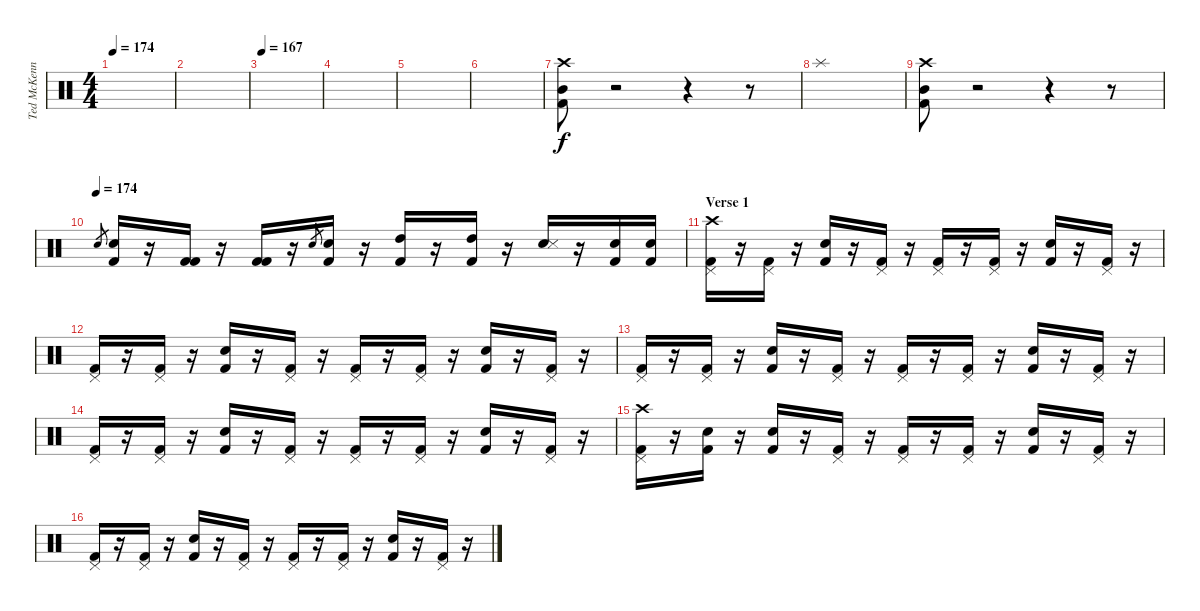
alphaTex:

\track ("Ted McKenna" "Ted McKenn") {instrument percussion}
\staff {score}
\articulation defaults
\ts (4 4)
\tempo 174
\clef neutral
\ks c
|
|
\tempo 167
|
|
|
|
("Crash high (hit)" "Mid Tom (hit)" "Kick (hit) 2").8 r.2 r.4 r.8 |
"Splash (hit)".1 |
("Crash high (hit)" "Mid Tom (hit)" "Kick (hit) 2").8 r.2 r.4 r.8 |
\tempo (174)
"Electric Snare (hit)"{sl}.8{gr} ("Electric Snare (hit)" "Kick (hit) 2").16 r.16 ("Kick (hit) 2" "Kick (hit) 2").16 r.16 ("Kick (hit) 2" "Kick (hit) 2").16 r.16 "Electric Snare (hit)".8{gr} ("Electric Snare (hit)" "Kick (hit) 2").16 r.16 ("High Tom (hit)" "Kick (hit) 2").16 r.16 ("High Tom (hit)" "Kick (hit) 2").16 r.16 ("Snare (hit) 2" "Snare (side stick) 3").16 r.16 ("Snare (hit) 2" "Kick (hit) 2").16 ("Snare (hit) 2" "Kick (hit) 2").16 |
\section ("" "Verse 1")
("Crash high (hit)" "Pedal Hi-Hat (hit)" "Kick (hit) 2").16 r.16 ("Pedal Hi-Hat (hit)" "Kick (hit) 2").16 r.16 ("Snare (hit) 2" "Kick (hit) 2").16 r.16 ("Pedal Hi-Hat (hit)" "Kick (hit) 2").16 r.16 ("Pedal Hi-Hat (hit)" "Kick (hit) 2").16 r.16 ("Pedal Hi-Hat (hit)" "Kick (hit) 2").16 r.16 ("Snare (hit) 2" "Kick (hit) 2").16 r.16 ("Pedal Hi-Hat (hit)" "Kick (hit) 2").16 r.16 |
("Pedal Hi-Hat (hit)" "Kick (hit) 2").16 r.16 ("Pedal Hi-Hat (hit)" "Kick (hit) 2").16 r.16 ("Snare (hit) 2" "Kick (hit) 2").16 r.16 ("Pedal Hi-Hat (hit)" "Kick (hit) 2").16 r.16 ("Pedal Hi-Hat (hit)" "Kick (hit) 2").16 r.16 ("Pedal Hi-Hat (hit)" "Kick (hit) 2").16 r.16 ("Snare (hit) 2" "Kick (hit) 2").16 r.16 ("Pedal Hi-Hat (hit)" "Kick (hit) 2").16 r.16 |
("Pedal Hi-Hat (hit)" "Kick (hit) 2").16 r.16 ("Pedal Hi-Hat (hit)" "Kick (hit) 2").16 r.16 ("Snare (hit) 2" "Kick (hit) 2").16 r.16 ("Pedal Hi-Hat (hit)" "Kick (hit) 2").16 r.16 ("Pedal Hi-Hat (hit)" "Kick (hit) 2").16 r.16 ("Pedal Hi-Hat (hit)" "Kick (hit) 2").16 r.16 ("Snare (hit) 2" "Kick (hit) 2").16 r.16 ("Pedal Hi-Hat (hit)" "Kick (hit) 2").16 r.16 |
("Pedal Hi-Hat (hit)" "Kick (hit) 2").16 r.16 ("Pedal Hi-Hat (hit)" "Kick (hit) 2").16 r.16 ("Snare (hit) 2" "Kick (hit) 2").16 r.16 ("Pedal Hi-Hat (hit)" "Kick (hit) 2").16 r.16 ("Pedal Hi-Hat (hit)" "Kick (hit) 2").16 r.16 ("Pedal Hi-Hat (hit)" "Kick (hit) 2").16 r.16 ("Snare (hit) 2" "Kick (hit) 2").16 r.16 ("Pedal Hi-Hat (hit)" "Kick (hit) 2").16 r.16 |
("Crash high (hit)" "Pedal Hi-Hat (hit)" "Kick (hit) 2").16 r.16 ("Snare (hit) 2" "Kick (hit) 2").16 r.16 ("Snare (hit) 2" "Kick (hit) 2").16 r.16 ("Pedal Hi-Hat (hit)" "Kick (hit) 2").16 r.16 ("Pedal Hi-Hat (hit)" "Kick (hit) 2").16 r.16 ("Pedal Hi-Hat (hit)" "Kick (hit) 2").16 r.16 ("Snare (hit) 2" "Kick (hit) 2").16 r.16 ("Pedal Hi-Hat (hit)" "Kick (hit) 2").16 r.16 |
("Pedal Hi-Hat (hit)" "Kick (hit) 2").16 r.16 ("Pedal Hi-Hat (hit)" "Kick (hit) 2").16 r.16 ("Snare (hit) 2" "Kick (hit) 2").16 r.16 ("Pedal Hi-Hat (hit)" "Kick (hit) 2").16 r.16 ("Pedal Hi-Hat (hit)" "Kick (hit) 2").16 r.16 ("Pedal Hi-Hat (hit)" "Kick (hit) 2").16 r.16 ("Snare (hit) 2" "Kick (hit) 2").16 r.16 ("Pedal Hi-Hat (hit)" "Kick (hit) 2").16 r.16
